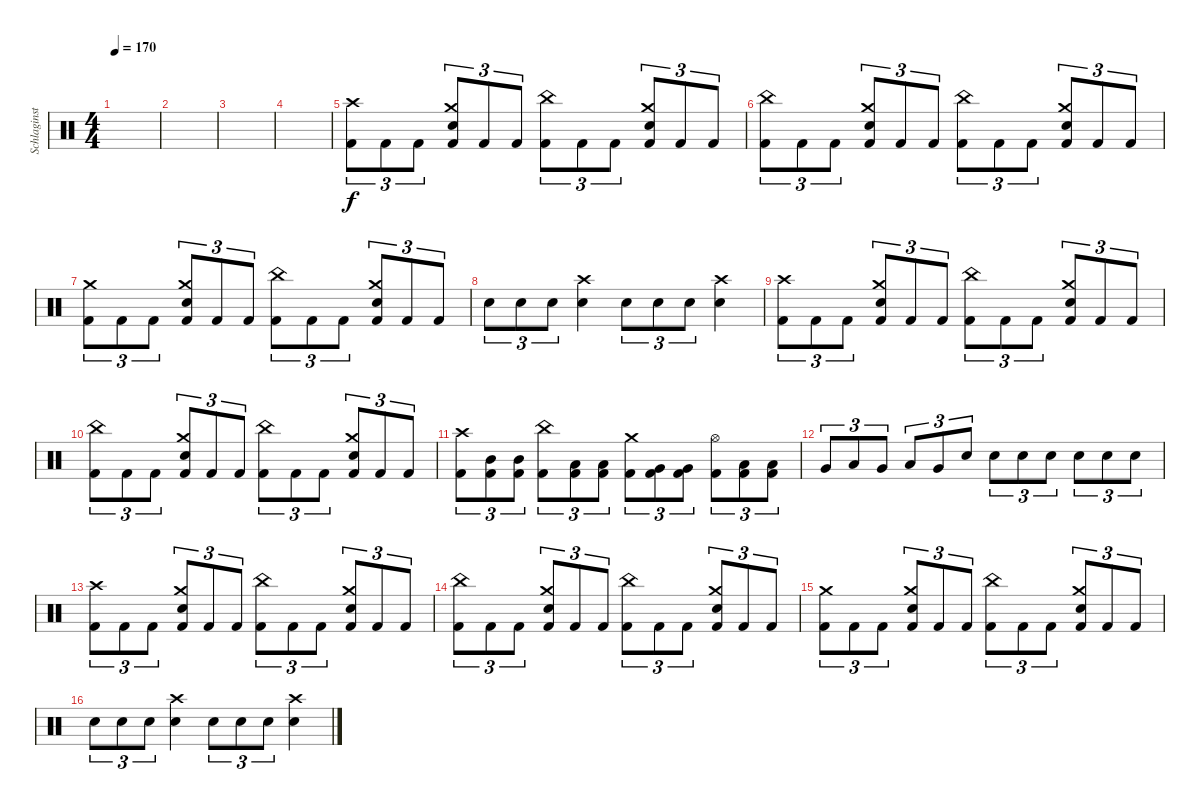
\track ("Schlaginstrumente - Auswahl" "Schlaginst") {instrument percussion}
\staff {score}
\articulation defaults
\ts (4 4)
\tempo 170
\clef neutral
\ks c
|
|
|
|
("Crash high (hit)" "Kick (hit) 2").8{tu (3 2)} "Kick (hit) 2".8{tu (3 2)} "Kick (hit) 2".8{tu (3 2)} ("Crash medium (hit)" "Electric Snare (hit)" "Kick (hit) 2").8{tu (3 2)} "Kick (hit) 2".8{tu (3 2)} "Kick (hit) 2".8{tu (3 2)} ("China (hit)" "Kick (hit) 2").8{tu (3 2)} "Kick (hit) 2".8{tu (3 2)} "Kick (hit) 2".8{tu (3 2)} ("Crash medium (hit)" "Electric Snare (hit)" "Kick (hit) 2").8{tu (3 2)} "Kick (hit) 2".8{tu (3 2)} "Kick (hit) 2".8{tu (3 2)} |
("China (hit)" "Kick (hit) 2").8{tu (3 2)} "Kick (hit) 2".8{tu (3 2)} "Kick (hit) 2".8{tu (3 2)} ("Crash medium (hit)" "Electric Snare (hit)" "Kick (hit) 2").8{tu (3 2)} "Kick (hit) 2".8{tu (3 2)} "Kick (hit) 2".8{tu (3 2)} ("China (hit)" "Kick (hit) 2").8{tu (3 2)} "Kick (hit) 2".8{tu (3 2)} "Kick (hit) 2".8{tu (3 2)} ("Crash medium (hit)" "Electric Snare (hit)" "Kick (hit) 2").8{tu (3 2)} "Kick (hit) 2".8{tu (3 2)} "Kick (hit) 2".8{tu (3 2)} |
("Crash medium (hit)" "Kick (hit) 2").8{tu (3 2)} "Kick (hit) 2".8{tu (3 2)} "Kick (hit) 2".8{tu (3 2)} ("Crash medium (hit)" "Electric Snare (hit)" "Kick (hit) 2").8{tu (3 2)} "Kick (hit) 2".8{tu (3 2)} "Kick (hit) 2".8{tu (3 2)} ("China (hit)" "Kick (hit) 2").8{tu (3 2)} "Kick (hit) 2".8{tu (3 2)} "Kick (hit) 2".8{tu (3 2)} ("Crash medium (hit)" "Electric Snare (hit)" "Kick (hit) 2").8{tu (3 2)} "Kick (hit) 2".8{tu (3 2)} "Kick (hit) 2".8{tu (3 2)} |
"Electric Snare (hit)".8{tu (3 2)} "Electric Snare (hit)".8{tu (3 2)} "Electric Snare (hit)".8{tu (3 2)} ("Crash high (hit)" "Electric Snare (hit)").4 "Electric Snare (hit)".8{tu (3 2)} "Electric Snare (hit)".8{tu (3 2)} "Electric Snare (hit)".8{tu (3 2)} ("Crash high (hit)" "Electric Snare (hit)").4 |
("Crash high (hit)" "Kick (hit) 2").8{tu (3 2)} "Kick (hit) 2".8{tu (3 2)} "Kick (hit) 2".8{tu (3 2)} ("Crash medium (hit)" "Electric Snare (hit)" "Kick (hit) 2").8{tu (3 2)} "Kick (hit) 2".8{tu (3 2)} "Kick (hit) 2".8{tu (3 2)} ("China (hit)" "Kick (hit) 2").8{tu (3 2)} "Kick (hit) 2".8{tu (3 2)} "Kick (hit) 2".8{tu (3 2)} ("Crash medium (hit)" "Electric Snare (hit)" "Kick (hit) 2").8{tu (3 2)} "Kick (hit) 2".8{tu (3 2)} "Kick (hit) 2".8{tu (3 2)} |
("China (hit)" "Kick (hit) 2").8{tu (3 2)} "Kick (hit) 2".8{tu (3 2)} "Kick (hit) 2".8{tu (3 2)} ("Crash medium (hit)" "Electric Snare (hit)" "Kick (hit) 2").8{tu (3 2)} "Kick (hit) 2".8{tu (3 2)} "Kick (hit) 2".8{tu (3 2)} ("China (hit)" "Kick (hit) 2").8{tu (3 2)} "Kick (hit) 2".8{tu (3 2)} "Kick (hit) 2".8{tu (3 2)} ("Crash medium (hit)" "Electric Snare (hit)" "Kick (hit) 2").8{tu (3 2)} "Kick (hit) 2".8{tu (3 2)} "Kick (hit) 2".8{tu (3 2)} |
("Crash high (hit)" "Kick (hit) 2").8{tu (3 2)} ("Mid Tom (hit)" "Kick (hit) 2").8{tu (3 2)} ("Mid Tom (hit)" "Kick (hit) 2").8{tu (3 2)} ("China (hit)" "Kick (hit) 2").8{tu (3 2)} ("Low Tom (hit)" "Kick (hit) 2").8{tu (3 2)} ("Low Tom (hit)" "Kick (hit) 2").8{tu (3 2)} ("Crash medium (hit)" "Kick (hit) 2").8{tu (3 2)} ("Very Low Tom (hit)" "Kick (hit) 2").8{tu (3 2)} ("Very Low Tom (hit)" "Kick (hit) 2").8{tu (3 2)} ("Hi-Hat (open)" "Kick (hit) 2").8{tu (3 2)} ("Low Floor Tom (hit)" "Kick (hit) 2").8{tu (3 2)} ("Low Floor Tom (hit)" "Kick (hit) 2").8{tu (3 2)} |
"Very Low Tom (hit)".8{tu (3 2)} "Low Tom (hit)".8{tu (3 2)} "Very Low Tom (hit)".8{tu (3 2)} "Low Tom (hit)".8{tu (3 2)} "Very Low Tom (hit)".8{tu (3 2)} "Electric Snare (hit)".8{tu (3 2)} "Electric Snare (hit)".8{tu (3 2)} "Electric Snare (hit)".8{tu (3 2)} "Electric Snare (hit)".8{tu (3 2)} "Electric Snare (hit)".8{tu (3 2)} "Electric Snare (hit)".8{tu (3 2)} "Electric Snare (hit)".8{tu (3 2)} |
("Crash high (hit)" "Kick (hit) 2").8{tu (3 2)} "Kick (hit) 2".8{tu (3 2)} "Kick (hit) 2".8{tu (3 2)} ("Crash medium (hit)" "Electric Snare (hit)" "Kick (hit) 2").8{tu (3 2)} "Kick (hit) 2".8{tu (3 2)} "Kick (hit) 2".8{tu (3 2)} ("China (hit)" "Kick (hit) 2").8{tu (3 2)} "Kick (hit) 2".8{tu (3 2)} "Kick (hit) 2".8{tu (3 2)} ("Crash medium (hit)" "Electric Snare (hit)" "Kick (hit) 2").8{tu (3 2)} "Kick (hit) 2".8{tu (3 2)} "Kick (hit) 2".8{tu (3 2)} |
("China (hit)" "Kick (hit) 2").8{tu (3 2)} "Kick (hit) 2".8{tu (3 2)} "Kick (hit) 2".8{tu (3 2)} ("Crash medium (hit)" "Electric Snare (hit)" "Kick (hit) 2").8{tu (3 2)} "Kick (hit) 2".8{tu (3 2)} "Kick (hit) 2".8{tu (3 2)} ("China (hit)" "Kick (hit) 2").8{tu (3 2)} "Kick (hit) 2".8{tu (3 2)} "Kick (hit) 2".8{tu (3 2)} ("Crash medium (hit)" "Electric Snare (hit)" "Kick (hit) 2").8{tu (3 2)} "Kick (hit) 2".8{tu (3 2)} "Kick (hit) 2".8{tu (3 2)} |
("Crash medium (hit)" "Kick (hit) 2").8{tu (3 2)} "Kick (hit) 2".8{tu (3 2)} "Kick (hit) 2".8{tu (3 2)} ("Crash medium (hit)" "Electric Snare (hit)" "Kick (hit) 2").8{tu (3 2)} "Kick (hit) 2".8{tu (3 2)} "Kick (hit) 2".8{tu (3 2)} ("China (hit)" "Kick (hit) 2").8{tu (3 2)} "Kick (hit) 2".8{tu (3 2)} "Kick (hit) 2".8{tu (3 2)} ("Crash medium (hit)" "Electric Snare (hit)" "Kick (hit) 2").8{tu (3 2)} "Kick (hit) 2".8{tu (3 2)} "Kick (hit) 2".8{tu (3 2)} |
"Electric Snare (hit)".8{tu (3 2)} "Electric Snare (hit)".8{tu (3 2)} "Electric Snare (hit)".8{tu (3 2)} ("Crash high (hit)" "Electric Snare (hit)").4 "Electric Snare (hit)".8{tu (3 2)} "Electric Snare (hit)".8{tu (3 2)} "Electric Snare (hit)".8{tu (3 2)} ("Crash high (hit)" "Electric Snare (hit)").4
